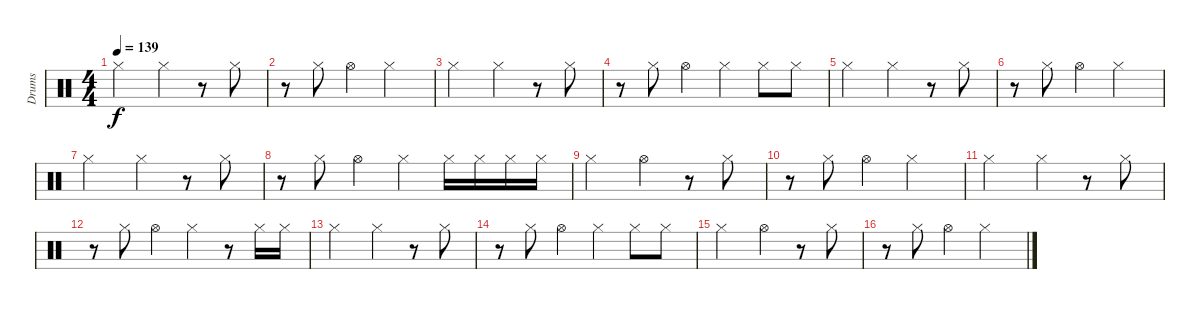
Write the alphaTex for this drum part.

\track ("Drums" "Drums") {instrument percussion}
\staff {score}
\articulation defaults
\ts (4 4)
\tempo 139
\clef neutral
\ks c "Hi-Hat (closed)".2{dy f} "Hi-Hat (closed)".4
r.8 "Hi-Hat (closed)".8 |
r.8 "Hi-Hat (closed)".8 "Hi-Hat (open)".4 "Hi-Hat (closed)".2 |
"Hi-Hat (closed)".2 "Hi-Hat (closed)".4 r.8 "Hi-Hat (closed)".8 |
r.8 "Hi-Hat (closed)".8 "Hi-Hat (open)".4 "Hi-Hat (closed)".4 "Hi-Hat (closed)".8 "Hi-Hat (closed)".8 |
"Hi-Hat (closed)".2 "Hi-Hat (closed)".4 r.8 "Hi-Hat (closed)".8 |
r.8 "Hi-Hat (closed)".8 "Hi-Hat (open)".4 "Hi-Hat (closed)".2 |
"Hi-Hat (closed)".2 "Hi-Hat (closed)".4 r.8 "Hi-Hat (closed)".8 |
r.8 "Hi-Hat (closed)".8 "Hi-Hat (open)".4 "Hi-Hat (closed)".4 "Hi-Hat (closed)".16 "Hi-Hat (closed)".16 "Hi-Hat (closed)".16 "Hi-Hat (closed)".16 |
"Hi-Hat (closed)".2 "Hi-Hat (open)".4 r.8 "Hi-Hat (closed)".8 |
r.8 "Hi-Hat (closed)".8 "Hi-Hat (open)".4 "Hi-Hat (closed)".2 |
"Hi-Hat (closed)".2 "Hi-Hat (closed)".4 r.8 "Hi-Hat (closed)".8 |
r.8 "Hi-Hat (closed)".8 "Hi-Hat (open)".4 "Hi-Hat (closed)".4 r.8 "Hi-Hat (closed)".16 "Hi-Hat (closed)".16 |
"Hi-Hat (closed)".2 "Hi-Hat (closed)".4 r.8 "Hi-Hat (closed)".8 |
r.8 "Hi-Hat (closed)".8 "Hi-Hat (open)".4 "Hi-Hat (closed)".4 "Hi-Hat (closed)".8 "Hi-Hat (closed)".8 |
"Hi-Hat (closed)".2 "Hi-Hat (open)".4 r.8 "Hi-Hat (closed)".8 |
r.8 "Hi-Hat (closed)".8 "Hi-Hat (open)".4 "Hi-Hat (closed)".2
